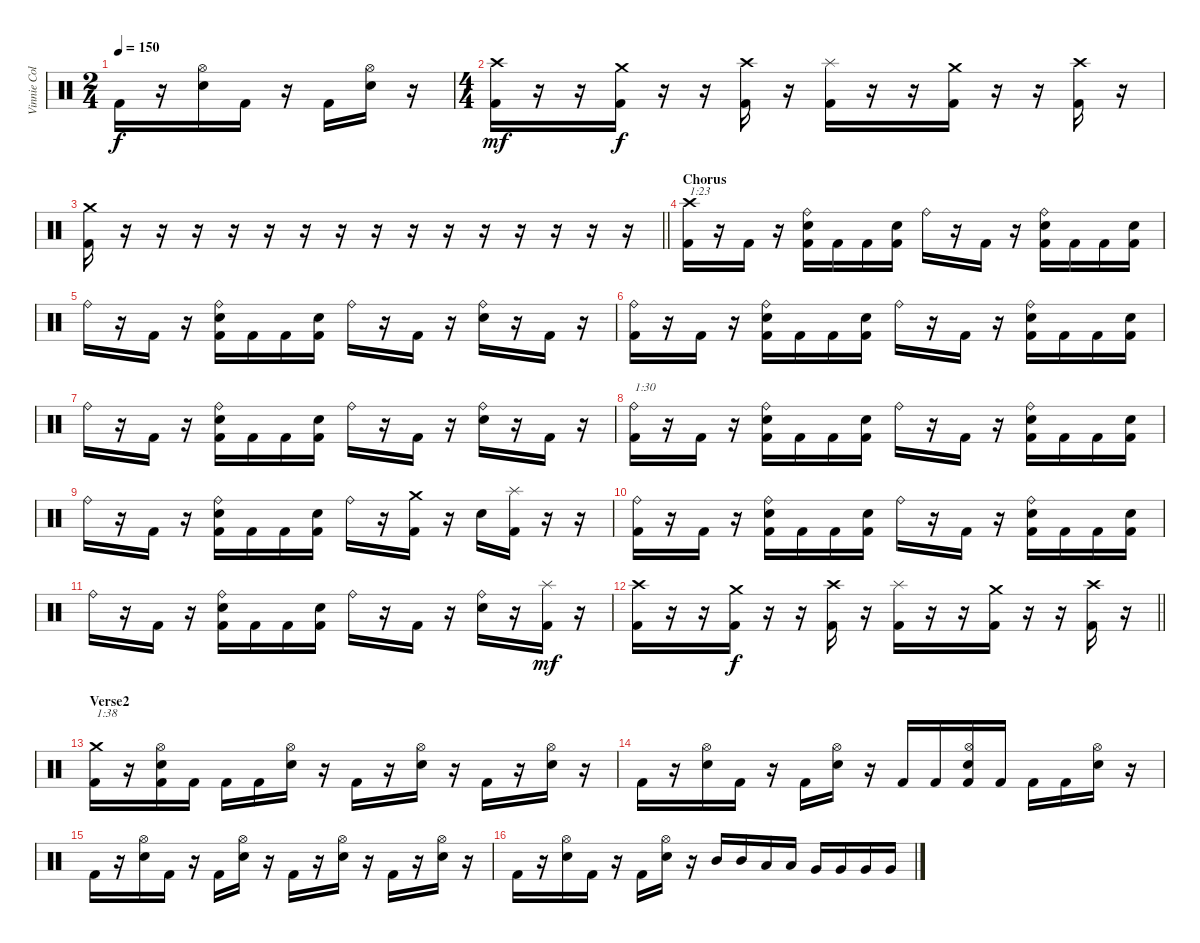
\track ("Vinnie Colaiuta" "Vinnie Col") {instrument percussion}
\staff {score}
\articulation defaults
\ts (2 4)
\tempo 150
\clef neutral
\ks c "Kick (hit) 2".16{dy f}
r.16 ("Hi-Hat (open)" "Electric Snare (hit)").16 "Kick (hit) 2".16 r.16 "Kick (hit) 2".16 ("Hi-Hat (open)" "Electric Snare (hit)").16 r.16 |
\ts (4 4)
("Crash high (hit)" "Kick (hit) 2").16{dy mf} r.16 r.16 ("Crash medium (hit)" "Kick (hit) 2").16{dy f} r.16 r.16 ("Crash high (hit)" "Kick (hit) 2").16 r.16 ("Splash (hit)" "Kick (hit) 2").16 r.16 r.16 ("Crash medium (hit)" "Kick (hit) 2").16 r.16 r.16 ("Crash high (hit)" "Kick (hit) 2").16 r.16 |
\barLineRight lightlight
("Crash medium (hit)" "Kick (hit) 2").16 r.16 r.16 r.16 r.16 r.16 r.16 r.16 r.16 r.16 r.16 r.16 r.16 r.16 r.16 r.16 |
\section ("" "Chorus")
("Crash high (hit)" "Kick (hit) 2").16{txt "1:23"} r.16 "Kick (hit) 2".16 r.16 ("Ride (bell)" "Electric Snare (hit)" "Kick (hit) 2").16 "Kick (hit) 2".16 "Kick (hit) 2".16 ("Electric Snare (hit)" "Kick (hit) 2").16 "Ride (bell)".16 r.16 "Kick (hit) 2".16 r.16 ("Ride (bell)" "Electric Snare (hit)" "Kick (hit) 2").16 "Kick (hit) 2".16 "Kick (hit) 2".16 ("Electric Snare (hit)" "Kick (hit) 2").16 |
"Ride (bell)".16 r.16 "Kick (hit) 2".16 r.16 ("Ride (bell)" "Electric Snare (hit)" "Kick (hit) 2").16 "Kick (hit) 2".16 "Kick (hit) 2".16 ("Electric Snare (hit)" "Kick (hit) 2").16 "Ride (bell)".16 r.16 "Kick (hit) 2".16 r.16 ("Ride (bell)" "Electric Snare (hit)").16 r.16 "Kick (hit) 2".16 r.16 |
("Ride (bell)" "Kick (hit) 2").16 r.16 "Kick (hit) 2".16 r.16 ("Ride (bell)" "Electric Snare (hit)" "Kick (hit) 2").16 "Kick (hit) 2".16 "Kick (hit) 2".16 ("Electric Snare (hit)" "Kick (hit) 2").16 "Ride (bell)".16 r.16 "Kick (hit) 2".16 r.16 ("Ride (bell)" "Electric Snare (hit)" "Kick (hit) 2").16 "Kick (hit) 2".16 "Kick (hit) 2".16 ("Electric Snare (hit)" "Kick (hit) 2").16 |
"Ride (bell)".16 r.16 "Kick (hit) 2".16 r.16 ("Ride (bell)" "Electric Snare (hit)" "Kick (hit) 2").16 "Kick (hit) 2".16 "Kick (hit) 2".16 ("Electric Snare (hit)" "Kick (hit) 2").16 "Ride (bell)".16 r.16 "Kick (hit) 2".16 r.16 ("Ride (bell)" "Electric Snare (hit)").16 r.16 "Kick (hit) 2".16 r.16 |
("Ride (bell)" "Kick (hit) 2").16{txt "1:30"} r.16 "Kick (hit) 2".16 r.16 ("Ride (bell)" "Electric Snare (hit)" "Kick (hit) 2").16 "Kick (hit) 2".16 "Kick (hit) 2".16 ("Electric Snare (hit)" "Kick (hit) 2").16 "Ride (bell)".16 r.16 "Kick (hit) 2".16 r.16 ("Ride (bell)" "Electric Snare (hit)" "Kick (hit) 2").16 "Kick (hit) 2".16 "Kick (hit) 2".16 ("Electric Snare (hit)" "Kick (hit) 2").16 |
"Ride (bell)".16 r.16 "Kick (hit) 2".16 r.16 ("Ride (bell)" "Electric Snare (hit)" "Kick (hit) 2").16 "Kick (hit) 2".16 "Kick (hit) 2".16 ("Electric Snare (hit)" "Kick (hit) 2").16 "Ride (bell)".16 r.16 ("Crash medium (hit)" "Kick (hit) 2").16 r.16 "Electric Snare (hit)".16 ("Splash (hit)" "Kick (hit) 2").16 r.16 r.16 |
("Ride (bell)" "Kick (hit) 2").16 r.16 "Kick (hit) 2".16 r.16 ("Ride (bell)" "Electric Snare (hit)" "Kick (hit) 2").16 "Kick (hit) 2".16 "Kick (hit) 2".16 ("Electric Snare (hit)" "Kick (hit) 2").16 "Ride (bell)".16 r.16 "Kick (hit) 2".16 r.16 ("Ride (bell)" "Electric Snare (hit)" "Kick (hit) 2").16 "Kick (hit) 2".16 "Kick (hit) 2".16 ("Electric Snare (hit)" "Kick (hit) 2").16 |
"Ride (bell)".16 r.16 "Kick (hit) 2".16 r.16 ("Ride (bell)" "Electric Snare (hit)" "Kick (hit) 2").16 "Kick (hit) 2".16 "Kick (hit) 2".16 ("Electric Snare (hit)" "Kick (hit) 2").16 "Ride (bell)".16 r.16 "Kick (hit) 2".16 r.16 ("Ride (bell)" "Electric Snare (hit)").16 r.16 ("Splash (hit)" "Kick (hit) 2").16{dy mf} r.16 |
\barLineRight lightlight
("Crash high (hit)" "Kick (hit) 2").16 r.16 r.16 ("Crash medium (hit)" "Kick (hit) 2").16{dy f} r.16 r.16 ("Crash high (hit)" "Kick (hit) 2").16 r.16 ("Splash (hit)" "Kick (hit) 2").16 r.16 r.16 ("Crash medium (hit)" "Kick (hit) 2").16 r.16 r.16 ("Crash high (hit)" "Kick (hit) 2").16 r.16 |
\section ("" "Verse2")
("Crash medium (hit)" "Kick (hit) 2").16{txt "1:38"} r.16 ("Hi-Hat (open)" "Electric Snare (hit)" "Kick (hit) 2").16 "Kick (hit) 2".16 "Kick (hit) 2".16 "Kick (hit) 2".16 ("Hi-Hat (open)" "Electric Snare (hit)").16 r.16 "Kick (hit) 2".16 r.16 ("Hi-Hat (open)" "Electric Snare (hit)").16 r.16 "Kick (hit) 2".16 r.16 ("Hi-Hat (open)" "Electric Snare (hit)").16 r.16 |
"Kick (hit) 2".16 r.16 ("Hi-Hat (open)" "Electric Snare (hit)").16 "Kick (hit) 2".16 r.16 "Kick (hit) 2".16 ("Hi-Hat (open)" "Electric Snare (hit)").16 r.16 "Kick (hit) 2".16 "Kick (hit) 2".16 ("Hi-Hat (open)" "Electric Snare (hit)" "Kick (hit) 2").16 "Kick (hit) 2".16 "Kick (hit) 2".16 "Kick (hit) 2".16 ("Hi-Hat (open)" "Electric Snare (hit)").16 r.16 |
"Kick (hit) 2".16 r.16 ("Hi-Hat (open)" "Electric Snare (hit)").16 "Kick (hit) 2".16 r.16 "Kick (hit) 2".16 ("Hi-Hat (open)" "Electric Snare (hit)").16 r.16 "Kick (hit) 2".16 r.16 ("Hi-Hat (open)" "Electric Snare (hit)").16 r.16 "Kick (hit) 2".16 r.16 ("Hi-Hat (open)" "Electric Snare (hit)").16 r.16 |
"Kick (hit) 2".16 r.16 ("Hi-Hat (open)" "Electric Snare (hit)").16 "Kick (hit) 2".16 r.16 "Kick (hit) 2".16 ("Hi-Hat (open)" "Electric Snare (hit)").16 r.16 "Mid Tom (hit)".16 "Mid Tom (hit)".16 "Low Tom (hit)".16 "Low Tom (hit)".16 "Very Low Tom (hit)".16 "Very Low Tom (hit)".16 "Very Low Tom (hit)".16 "Very Low Tom (hit)".16
